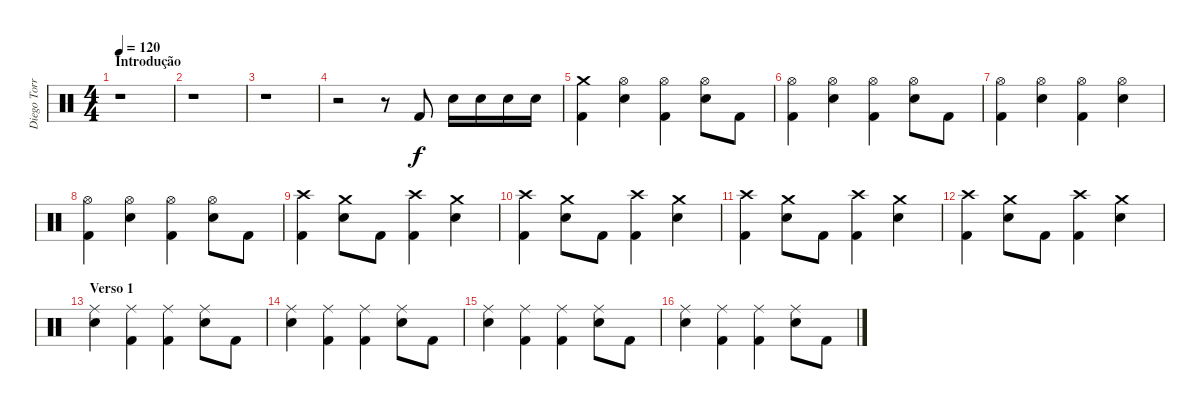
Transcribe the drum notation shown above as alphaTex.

\track ("Diego Torres [Bateria]" "Diego Torr") {instrument percussion}
\staff {score}
\articulation defaults
\ts (4 4)
\section ("" "Introdução")
\tempo 120
\clef neutral
\ks c
r.1{dy f} |
r.1 |
r.1 |
r.2 r.8 "Kick (hit) 2".8 "Electric Snare (hit)".16 "Electric Snare (hit)".16 "Electric Snare (hit)".16 "Electric Snare (hit)".16 |
("Crash medium (hit)" "Kick (hit) 2").4 ("Hi-Hat (open)" "Electric Snare (hit)").4 ("Hi-Hat (open)" "Kick (hit) 2").4 ("Hi-Hat (open)" "Electric Snare (hit)").8 "Kick (hit) 2".8 |
("Hi-Hat (open)" "Kick (hit) 2").4 ("Hi-Hat (open)" "Electric Snare (hit)").4 ("Hi-Hat (open)" "Kick (hit) 2").4 ("Hi-Hat (open)" "Electric Snare (hit)").8 "Kick (hit) 2".8 |
("Hi-Hat (open)" "Kick (hit) 2").4 ("Hi-Hat (open)" "Electric Snare (hit)").4 ("Hi-Hat (open)" "Kick (hit) 2").4 ("Hi-Hat (open)" "Electric Snare (hit)").4 |
("Hi-Hat (open)" "Kick (hit) 2").4 ("Hi-Hat (open)" "Electric Snare (hit)").4 ("Hi-Hat (open)" "Kick (hit) 2").4 ("Hi-Hat (open)" "Electric Snare (hit)").8 "Kick (hit) 2".8 |
("Crash high (hit)" "Kick (hit) 2").4 ("Crash medium (hit)" "Electric Snare (hit)").8 "Kick (hit) 2".8 ("Crash high (hit)" "Kick (hit) 2").4 ("Crash medium (hit)" "Electric Snare (hit)").4 |
("Crash high (hit)" "Kick (hit) 2").4 ("Crash medium (hit)" "Electric Snare (hit)").8 "Kick (hit) 2".8 ("Crash high (hit)" "Kick (hit) 2").4 ("Crash medium (hit)" "Electric Snare (hit)").4 |
("Crash high (hit)" "Kick (hit) 2").4 ("Crash medium (hit)" "Electric Snare (hit)").8 "Kick (hit) 2".8 ("Crash high (hit)" "Kick (hit) 2").4 ("Crash medium (hit)" "Electric Snare (hit)").4 |
("Crash high (hit)" "Kick (hit) 2").4 ("Crash medium (hit)" "Electric Snare (hit)").8 "Kick (hit) 2".8 ("Crash high (hit)" "Kick (hit) 2").4 ("Crash medium (hit)" "Electric Snare (hit)").4 |
\section ("" "Verso 1")
("Ride (middle)" "Electric Snare (hit)").4 ("Ride (middle)" "Kick (hit) 2").4 ("Ride (middle)" "Kick (hit) 2").4 ("Ride (middle)" "Electric Snare (hit)").8 "Kick (hit) 2".8 |
("Ride (middle)" "Electric Snare (hit)").4 ("Ride (middle)" "Kick (hit) 2").4 ("Ride (middle)" "Kick (hit) 2").4 ("Ride (middle)" "Electric Snare (hit)").8 "Kick (hit) 2".8 |
("Ride (middle)" "Electric Snare (hit)").4 ("Ride (middle)" "Kick (hit) 2").4 ("Ride (middle)" "Kick (hit) 2").4 ("Ride (middle)" "Electric Snare (hit)").8 "Kick (hit) 2".8 |
("Ride (middle)" "Electric Snare (hit)").4 ("Ride (middle)" "Kick (hit) 2").4 ("Ride (middle)" "Kick (hit) 2").4 ("Ride (middle)" "Electric Snare (hit)").8 "Kick (hit) 2".8
